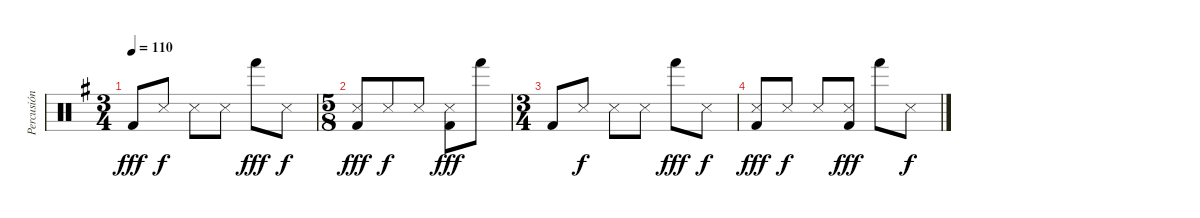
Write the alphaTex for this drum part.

\track ("Percusión" "Percusión") {instrument percussion}
\staff {score}
\articulation defaults
\ts (3 4)
\tempo 110
\clef neutral
\ks g "Kick (hit) 2".8{dy fff} "Metronome (hit)".8{dy f} "Metronome (hit)".8 "Metronome (hit)".8 "Hand (hit)".8{dy fff} "Metronome (hit)".8{dy f}
|
\ts (5 8)
("Metronome (hit)" "Kick (hit) 2").8{dy fff} "Metronome (hit)".8{dy f} "Metronome (hit)".8 ("Metronome (hit)" "Kick (hit) 2").8{dy fff} "Hand (hit)".8 |
\ts (3 4)
"Kick (hit) 2".8 "Metronome (hit)".8{dy f} "Metronome (hit)".8 "Metronome (hit)".8 "Hand (hit)".8{dy fff} "Metronome (hit)".8{dy f} |
("Metronome (hit)" "Kick (hit) 2").8{dy fff} "Metronome (hit)".8{dy f} "Metronome (hit)".8 ("Metronome (hit)" "Kick (hit) 2").8{dy fff} "Hand (hit)".8 "Metronome (hit)".8{dy f}
